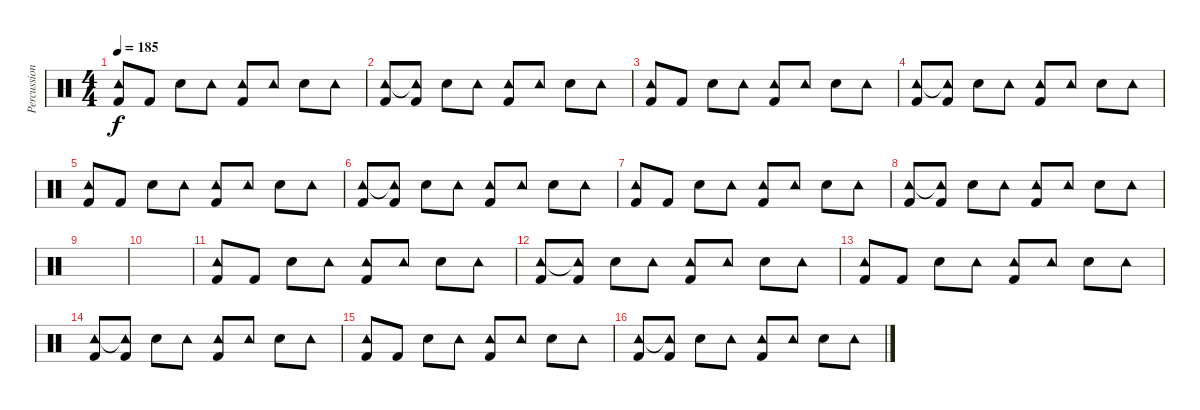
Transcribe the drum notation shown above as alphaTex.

\track ("Percussion" "Percussion") {instrument percussion}
\staff {score}
\articulation defaults
\ts (4 4)
\tempo 185
\clef neutral
\ks c
("Tambourine (hit)" "Kick (hit) 2").8{dy f} "Kick (hit) 2".8 "Electric Snare (hit)".8 "Tambourine (hit)".8 ("Tambourine (hit)" "Kick (hit) 2").8 "Tambourine (hit)".8 "Snare (hit) 2".8 "Tambourine (hit)".8 |
("Tambourine (hit)" "Kick (hit) 2").8 ("Tambourine (hit)"{t} "Kick (hit) 2").8 "Electric Snare (hit)".8 "Tambourine (hit)".8 ("Tambourine (hit)" "Kick (hit) 2").8 "Tambourine (hit)".8 "Electric Snare (hit)".8 "Tambourine (hit)".8 |
("Tambourine (hit)" "Kick (hit) 2").8 "Kick (hit) 2".8 "Electric Snare (hit)".8 "Tambourine (hit)".8 ("Tambourine (hit)" "Kick (hit) 2").8 "Tambourine (hit)".8 "Snare (hit) 2".8 "Tambourine (hit)".8 |
("Tambourine (hit)" "Kick (hit) 2").8 ("Tambourine (hit)"{t} "Kick (hit) 2").8 "Electric Snare (hit)".8 "Tambourine (hit)".8 ("Tambourine (hit)" "Kick (hit) 2").8 "Tambourine (hit)".8 "Electric Snare (hit)".8 "Tambourine (hit)".8 |
("Tambourine (hit)" "Kick (hit) 2").8 "Kick (hit) 2".8 "Electric Snare (hit)".8 "Tambourine (hit)".8 ("Tambourine (hit)" "Kick (hit) 2").8 "Tambourine (hit)".8 "Snare (hit) 2".8 "Tambourine (hit)".8 |
("Tambourine (hit)" "Kick (hit) 2").8 ("Tambourine (hit)"{t} "Kick (hit) 2").8 "Electric Snare (hit)".8 "Tambourine (hit)".8 ("Tambourine (hit)" "Kick (hit) 2").8 "Tambourine (hit)".8 "Electric Snare (hit)".8 "Tambourine (hit)".8 |
("Tambourine (hit)" "Kick (hit) 2").8 "Kick (hit) 2".8 "Electric Snare (hit)".8 "Tambourine (hit)".8 ("Tambourine (hit)" "Kick (hit) 2").8 "Tambourine (hit)".8 "Snare (hit) 2".8 "Tambourine (hit)".8 |
("Tambourine (hit)" "Kick (hit) 2").8 ("Tambourine (hit)"{t} "Kick (hit) 2").8 "Electric Snare (hit)".8 "Tambourine (hit)".8 ("Tambourine (hit)" "Kick (hit) 2").8 "Tambourine (hit)".8 "Electric Snare (hit)".8 "Tambourine (hit)".8 |
|
|
("Tambourine (hit)" "Kick (hit) 2").8 "Kick (hit) 2".8 "Electric Snare (hit)".8 "Tambourine (hit)".8 ("Tambourine (hit)" "Kick (hit) 2").8 "Tambourine (hit)".8 "Snare (hit) 2".8 "Tambourine (hit)".8 |
("Tambourine (hit)" "Kick (hit) 2").8 ("Tambourine (hit)"{t} "Kick (hit) 2").8 "Electric Snare (hit)".8 "Tambourine (hit)".8 ("Tambourine (hit)" "Kick (hit) 2").8 "Tambourine (hit)".8 "Electric Snare (hit)".8 "Tambourine (hit)".8 |
("Tambourine (hit)" "Kick (hit) 2").8 "Kick (hit) 2".8 "Electric Snare (hit)".8 "Tambourine (hit)".8 ("Tambourine (hit)" "Kick (hit) 2").8 "Tambourine (hit)".8 "Snare (hit) 2".8 "Tambourine (hit)".8 |
("Tambourine (hit)" "Kick (hit) 2").8 ("Tambourine (hit)"{t} "Kick (hit) 2").8 "Electric Snare (hit)".8 "Tambourine (hit)".8 ("Tambourine (hit)" "Kick (hit) 2").8 "Tambourine (hit)".8 "Electric Snare (hit)".8 "Tambourine (hit)".8 |
("Tambourine (hit)" "Kick (hit) 2").8 "Kick (hit) 2".8 "Electric Snare (hit)".8 "Tambourine (hit)".8 ("Tambourine (hit)" "Kick (hit) 2").8 "Tambourine (hit)".8 "Snare (hit) 2".8 "Tambourine (hit)".8 |
("Tambourine (hit)" "Kick (hit) 2").8 ("Tambourine (hit)"{t} "Kick (hit) 2").8 "Electric Snare (hit)".8 "Tambourine (hit)".8 ("Tambourine (hit)" "Kick (hit) 2").8 "Tambourine (hit)".8 "Electric Snare (hit)".8 "Tambourine (hit)".8
